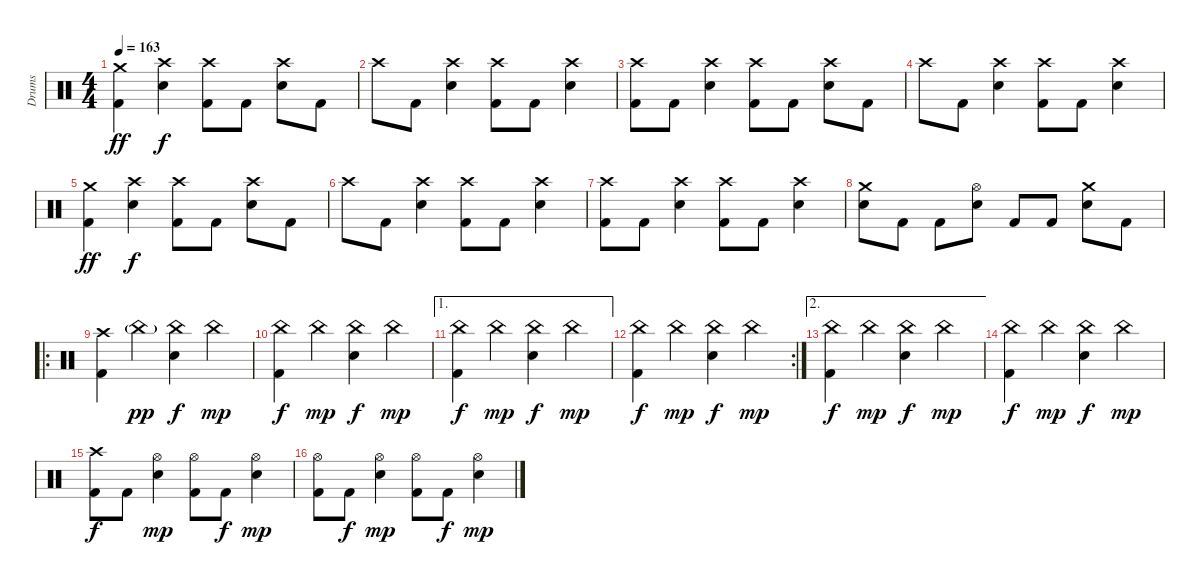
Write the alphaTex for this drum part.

\track ("Drums" "Drums") {instrument percussion}
\staff {score}
\articulation defaults
\ts (4 4)
\tempo 163
\clef neutral
\ks c
("Crash medium (hit)" "Kick (hit) 2").4{dy ff} ("Crash high (hit)" "Snare (hit) 2").4{dy f} ("Crash high (hit)" "Kick (hit) 2").8 "Kick (hit) 2".8 ("Crash high (hit)" "Snare (hit) 2").8 "Kick (hit) 2".8 |
"Crash high (hit)".8 "Kick (hit) 2".8 ("Crash high (hit)" "Snare (hit) 2").4 ("Crash high (hit)" "Kick (hit) 2").8 "Kick (hit) 2".8 ("Crash high (hit)" "Snare (hit) 2").4 |
("Crash high (hit)" "Kick (hit) 2").8 "Kick (hit) 2".8 ("Crash high (hit)" "Snare (hit) 2").4 ("Crash high (hit)" "Kick (hit) 2").8 "Kick (hit) 2".8 ("Crash high (hit)" "Snare (hit) 2").8 "Kick (hit) 2".8 |
"Crash high (hit)".8 "Kick (hit) 2".8 ("Crash high (hit)" "Snare (hit) 2").4 ("Crash high (hit)" "Kick (hit) 2").8 "Kick (hit) 2".8 ("Crash high (hit)" "Snare (hit) 2").4 |
("Crash medium (hit)" "Kick (hit) 2").4{dy ff} ("Crash high (hit)" "Snare (hit) 2").4{dy f} ("Crash high (hit)" "Kick (hit) 2").8 "Kick (hit) 2".8 ("Crash high (hit)" "Snare (hit) 2").8 "Kick (hit) 2".8 |
"Crash high (hit)".8 "Kick (hit) 2".8 ("Crash high (hit)" "Snare (hit) 2").4 ("Crash high (hit)" "Kick (hit) 2").8 "Kick (hit) 2".8 ("Crash high (hit)" "Snare (hit) 2").4 |
("Crash high (hit)" "Kick (hit) 2").8 "Kick (hit) 2".8 ("Crash high (hit)" "Snare (hit) 2").4 ("Crash high (hit)" "Kick (hit) 2").8 "Kick (hit) 2".8 ("Crash high (hit)" "Snare (hit) 2").4 |
("Crash medium (hit)" "Snare (hit) 2").8 "Kick (hit) 2".8 "Kick (hit) 2".8 ("Hi-Hat (open)" "Snare (hit) 2").8 "Kick (hit) 2".8 "Kick (hit) 2".8 ("Crash medium (hit)" "Snare (hit) 2").8 "Kick (hit) 2".8 |
\ro
("Crash high (hit)" "Kick (hit) 2").4 "China (hit)"{g}.4{dy pp} ("China (hit)" "Snare (hit) 2").4{dy f} "China (hit)".4{dy mp} |
("China (hit)" "Kick (hit) 2").4{dy f} "China (hit)".4{dy mp} ("China (hit)" "Snare (hit) 2").4{dy f} "China (hit)".4{dy mp} |
\ae 1
("China (hit)" "Kick (hit) 2").4{dy f} "China (hit)".4{dy mp} ("China (hit)" "Snare (hit) 2").4{dy f} "China (hit)".4{dy mp} |
\rc 2
("China (hit)" "Kick (hit) 2").4{dy f} "China (hit)".4{dy mp} ("China (hit)" "Snare (hit) 2").4{dy f} "China (hit)".4{dy mp} |
\ae 2
("China (hit)" "Kick (hit) 2").4{dy f} "China (hit)".4{dy mp} ("China (hit)" "Snare (hit) 2").4{dy f} "China (hit)".4{dy mp} |
("China (hit)" "Kick (hit) 2").4{dy f} "China (hit)".4{dy mp} ("China (hit)" "Snare (hit) 2").4{dy f} "China (hit)".4{dy mp} |
("Crash high (hit)" "Kick (hit) 2").8{dy f} "Kick (hit) 2".8 ("Hi-Hat (open)" "Snare (hit) 2").4{dy mp} ("Hi-Hat (open)" "Kick (hit) 2").8 "Kick (hit) 2".8{dy f} ("Hi-Hat (open)" "Snare (hit) 2").4{dy mp} |
("Hi-Hat (open)" "Kick (hit) 2").8 "Kick (hit) 2".8{dy f} ("Hi-Hat (open)" "Snare (hit) 2").4{dy mp} ("Hi-Hat (open)" "Kick (hit) 2").8 "Kick (hit) 2".8{dy f} ("Hi-Hat (open)" "Snare (hit) 2").4{dy mp}
